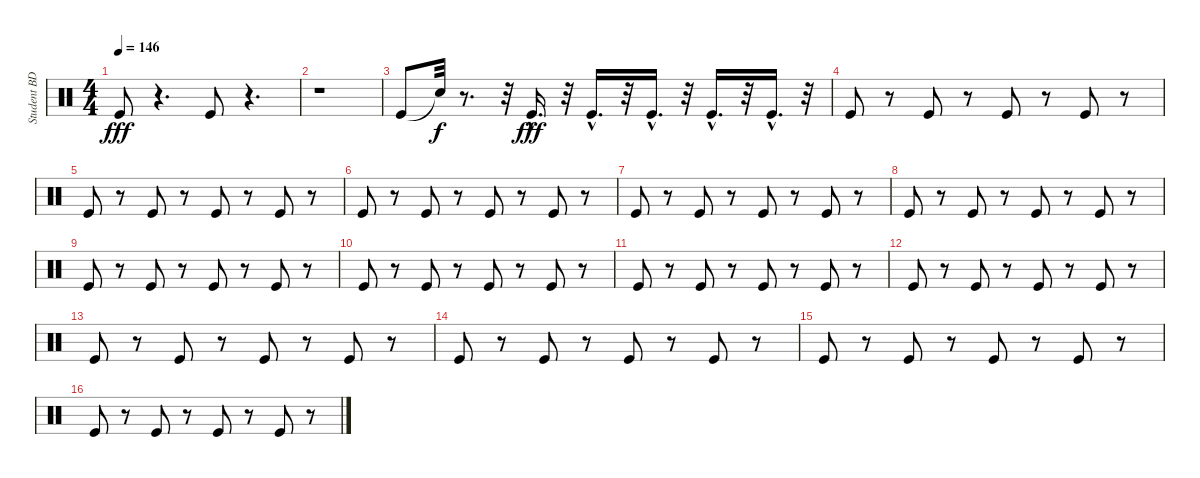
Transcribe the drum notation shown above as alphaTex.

\track ("Student BD" "Student BD") {instrument percussion}
\staff {score}
\articulation defaults
\ts (4 4)
\tempo 146
\clef neutral
\ks c "Kick (hit)".8{dy fff}
r.4{d} "Kick (hit)".8 r.4{d} |
r.1 |
"Kick (hit)".8 "Snare (hit)"{t}.32{dy f} r.8{d} r.32 "Kick (hit)"{hac}.16{d dy fff} r.32 "Kick (hit)"{hac}.16{d} r.32 "Kick (hit)"{hac}.16{d} r.32 "Kick (hit)"{hac}.16{d} r.32 "Kick (hit)"{hac}.16{d} r.32 |
"Kick (hit)".8 r.8 "Kick (hit)".8 r.8 "Kick (hit)".8 r.8 "Kick (hit)".8 r.8 |
"Kick (hit)".8 r.8 "Kick (hit)".8 r.8 "Kick (hit)".8 r.8 "Kick (hit)".8 r.8 |
"Kick (hit)".8 r.8 "Kick (hit)".8 r.8 "Kick (hit)".8 r.8 "Kick (hit)".8 r.8 |
"Kick (hit)".8 r.8 "Kick (hit)".8 r.8 "Kick (hit)".8 r.8 "Kick (hit)".8 r.8 |
"Kick (hit)".8 r.8 "Kick (hit)".8 r.8 "Kick (hit)".8 r.8 "Kick (hit)".8 r.8 |
"Kick (hit)".8 r.8 "Kick (hit)".8 r.8 "Kick (hit)".8 r.8 "Kick (hit)".8 r.8 |
"Kick (hit)".8 r.8 "Kick (hit)".8 r.8 "Kick (hit)".8 r.8 "Kick (hit)".8 r.8 |
"Kick (hit)".8 r.8 "Kick (hit)".8 r.8 "Kick (hit)".8 r.8 "Kick (hit)".8 r.8 |
"Kick (hit)".8 r.8 "Kick (hit)".8 r.8 "Kick (hit)".8 r.8 "Kick (hit)".8 r.8 |
"Kick (hit)".8 r.8 "Kick (hit)".8 r.8 "Kick (hit)".8 r.8 "Kick (hit)".8 r.8 |
"Kick (hit)".8 r.8 "Kick (hit)".8 r.8 "Kick (hit)".8 r.8 "Kick (hit)".8 r.8 |
"Kick (hit)".8 r.8 "Kick (hit)".8 r.8 "Kick (hit)".8 r.8 "Kick (hit)".8 r.8 |
"Kick (hit)".8 r.8 "Kick (hit)".8 r.8 "Kick (hit)".8 r.8 "Kick (hit)".8 r.8
